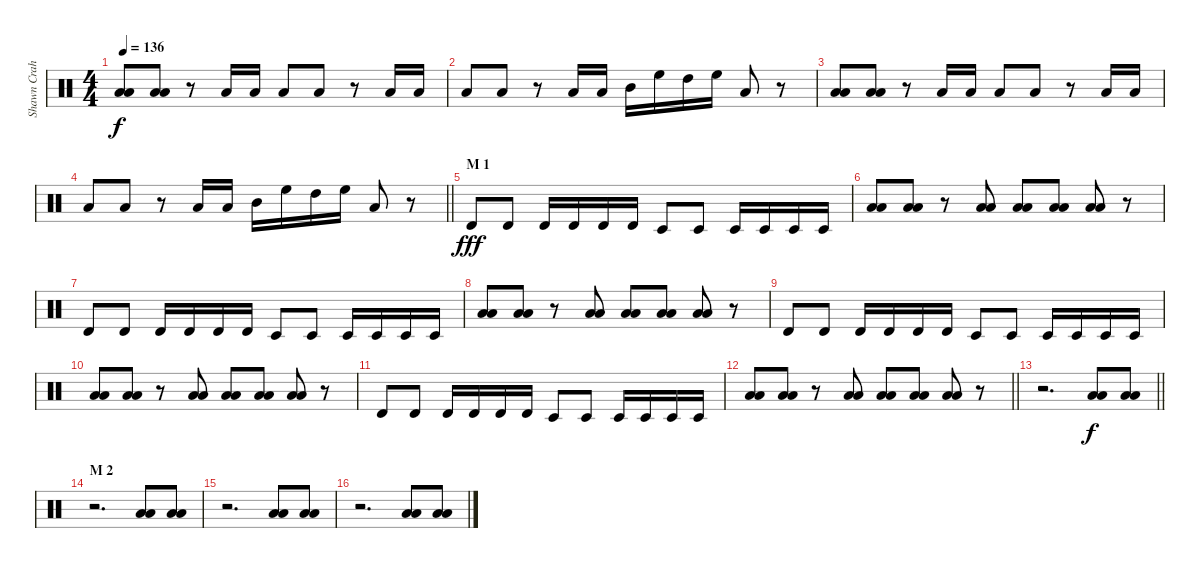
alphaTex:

\track ("Shawn Crahan" "Shawn Crah") {instrument percussion}
\staff {score}
\articulation defaults
\ts (4 4)
\tempo 136
\clef neutral
\ks c
("Low Floor Tom (hit)" "Low Floor Tom (hit)").8{dy f} ("Low Floor Tom (hit)" "Low Floor Tom (hit)").8 r.8 "Low Floor Tom (hit)".16 "Low Floor Tom (hit)".16 "Low Floor Tom (hit)".8 "Low Floor Tom (hit)".8 r.8 "Low Floor Tom (hit)".16 "Low Floor Tom (hit)".16 |
"Low Floor Tom (hit)".8 "Low Floor Tom (hit)".8 r.8 "Low Floor Tom (hit)".16 "Low Floor Tom (hit)".16 "Mid Tom (hit)".16 "High Floor Tom (hit)".16 "High Tom (hit)".16 "High Floor Tom (hit)".16 "Low Floor Tom (hit)".8 r.8 |
("Low Floor Tom (hit)" "Low Floor Tom (hit)").8 ("Low Floor Tom (hit)" "Low Floor Tom (hit)").8 r.8 "Low Floor Tom (hit)".16 "Low Floor Tom (hit)".16 "Low Floor Tom (hit)".8 "Low Floor Tom (hit)".8 r.8 "Low Floor Tom (hit)".16 "Low Floor Tom (hit)".16 |
\barLineRight lightlight "Low Floor Tom (hit)".8 "Low Floor Tom (hit)".8
r.8 "Low Floor Tom (hit)".16 "Low Floor Tom (hit)".16 "Mid Tom (hit)".16 "High Floor Tom (hit)".16 "High Tom (hit)".16 "High Floor Tom (hit)".16 "Low Floor Tom (hit)".8 r.8 |
\section ("" "M 1")
"Timbale high (hit)".8{dy fff} "Timbale high (hit)".8 "Timbale high (hit)".16 "Timbale high (hit)".16 "Timbale high (hit)".16 "Timbale high (hit)".16 "Timbale low (hit)".8 "Timbale low (hit)".8 "Timbale low (hit)".16 "Timbale low (hit)".16 "Timbale low (hit)".16 "Timbale low (hit)".16 |
("Low Floor Tom (hit)" "Low Floor Tom (hit)").8 ("Low Floor Tom (hit)" "Low Floor Tom (hit)").8 r.8 ("Low Floor Tom (hit)" "Low Floor Tom (hit)").8 ("Low Floor Tom (hit)" "Low Floor Tom (hit)").8 ("Low Floor Tom (hit)" "Low Floor Tom (hit)").8 ("Low Floor Tom (hit)" "Low Floor Tom (hit)").8 r.8 |
"Timbale high (hit)".8 "Timbale high (hit)".8 "Timbale high (hit)".16 "Timbale high (hit)".16 "Timbale high (hit)".16 "Timbale high (hit)".16 "Timbale low (hit)".8 "Timbale low (hit)".8 "Timbale low (hit)".16 "Timbale low (hit)".16 "Timbale low (hit)".16 "Timbale low (hit)".16 |
("Low Floor Tom (hit)" "Low Floor Tom (hit)").8 ("Low Floor Tom (hit)" "Low Floor Tom (hit)").8 r.8 ("Low Floor Tom (hit)" "Low Floor Tom (hit)").8 ("Low Floor Tom (hit)" "Low Floor Tom (hit)").8 ("Low Floor Tom (hit)" "Low Floor Tom (hit)").8 ("Low Floor Tom (hit)" "Low Floor Tom (hit)").8 r.8 |
"Timbale high (hit)".8 "Timbale high (hit)".8 "Timbale high (hit)".16 "Timbale high (hit)".16 "Timbale high (hit)".16 "Timbale high (hit)".16 "Timbale low (hit)".8 "Timbale low (hit)".8 "Timbale low (hit)".16 "Timbale low (hit)".16 "Timbale low (hit)".16 "Timbale low (hit)".16 |
("Low Floor Tom (hit)" "Low Floor Tom (hit)").8 ("Low Floor Tom (hit)" "Low Floor Tom (hit)").8 r.8 ("Low Floor Tom (hit)" "Low Floor Tom (hit)").8 ("Low Floor Tom (hit)" "Low Floor Tom (hit)").8 ("Low Floor Tom (hit)" "Low Floor Tom (hit)").8 ("Low Floor Tom (hit)" "Low Floor Tom (hit)").8 r.8 |
"Timbale high (hit)".8 "Timbale high (hit)".8 "Timbale high (hit)".16 "Timbale high (hit)".16 "Timbale high (hit)".16 "Timbale high (hit)".16 "Timbale low (hit)".8 "Timbale low (hit)".8 "Timbale low (hit)".16 "Timbale low (hit)".16 "Timbale low (hit)".16 "Timbale low (hit)".16 |
\barLineRight lightlight
("Low Floor Tom (hit)" "Low Floor Tom (hit)").8 ("Low Floor Tom (hit)" "Low Floor Tom (hit)").8 r.8 ("Low Floor Tom (hit)" "Low Floor Tom (hit)").8 ("Low Floor Tom (hit)" "Low Floor Tom (hit)").8 ("Low Floor Tom (hit)" "Low Floor Tom (hit)").8 ("Low Floor Tom (hit)" "Low Floor Tom (hit)").8 r.8 |
\barLineRight lightlight
r.2{d} ("Low Floor Tom (hit)" "Low Floor Tom (hit)").8{dy f} ("Low Floor Tom (hit)" "Low Floor Tom (hit)").8 |
\section ("" "M 2")
r.2{d} ("Low Floor Tom (hit)" "Low Floor Tom (hit)").8 ("Low Floor Tom (hit)" "Low Floor Tom (hit)").8 |
r.2{d} ("Low Floor Tom (hit)" "Low Floor Tom (hit)").8 ("Low Floor Tom (hit)" "Low Floor Tom (hit)").8 |
r.2{d} ("Low Floor Tom (hit)" "Low Floor Tom (hit)").8 ("Low Floor Tom (hit)" "Low Floor Tom (hit)").8
